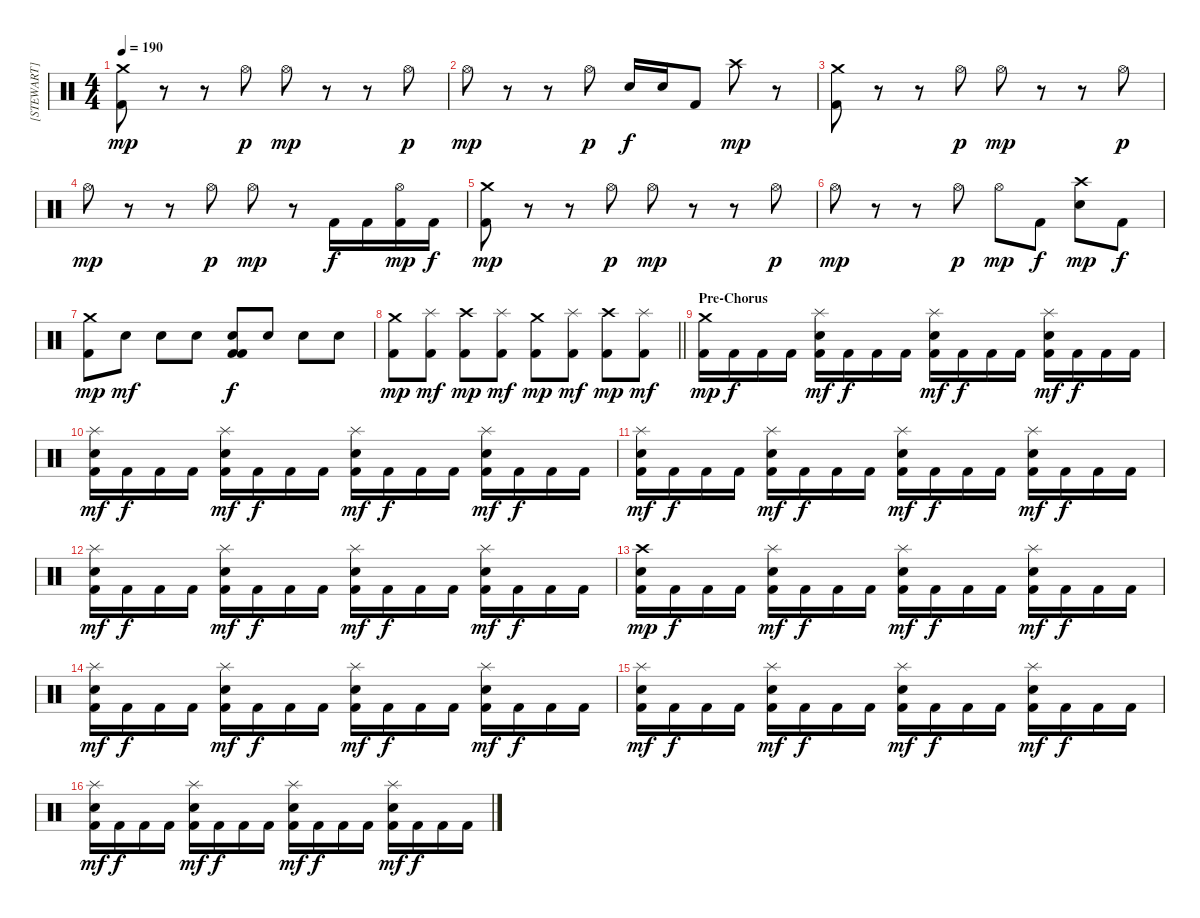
\track ("[STEWART]" "[STEWART]") {instrument percussion}
\staff {score}
\articulation defaults
\ts (4 4)
\tempo 190
\clef neutral
\ks c
("Crash medium (hit)" "Kick (hit) 2").8{dy mp} r.8 r.8 "Hi-Hat (open)".8{dy p} "Hi-Hat (open)".8{dy mp} r.8 r.8 "Hi-Hat (open)".8{dy p} |
"Hi-Hat (open)".8{dy mp} r.8 r.8 "Hi-Hat (open)".8{dy p} "Electric Snare (hit)".16{dy f} "Electric Snare (hit)".16 "Kick (hit) 2".8 "Crash high (hit)".8{dy mp} r.8 |
("Crash medium (hit)" "Kick (hit) 2").8 r.8 r.8 "Hi-Hat (open)".8{dy p} "Hi-Hat (open)".8{dy mp} r.8 r.8 "Hi-Hat (open)".8{dy p} |
"Hi-Hat (open)".8{dy mp} r.8 r.8 "Hi-Hat (open)".8{dy p} "Hi-Hat (open)".8{dy mp} r.8 "Kick (hit) 2".16{dy f} "Kick (hit) 2".16 ("Hi-Hat (open)" "Kick (hit) 2").16{dy mp} "Kick (hit) 2".16{dy f} |
("Crash medium (hit)" "Kick (hit) 2").8{dy mp} r.8 r.8 "Hi-Hat (open)".8{dy p} "Hi-Hat (open)".8{dy mp} r.8 r.8 "Hi-Hat (open)".8{dy p} |
"Hi-Hat (open)".8{dy mp} r.8 r.8 "Hi-Hat (open)".8{dy p} "Hi-Hat (open)".8{dy mp} "Kick (hit) 2".8{dy f} ("Crash high (hit)" "Electric Snare (hit)").8{dy mp} "Kick (hit) 2".8{dy f} |
("Crash medium (hit)" "Kick (hit) 2").8{dy mp} "Electric Snare (hit)".8{dy mf} "Electric Snare (hit)".8 "Electric Snare (hit)".8 ("Electric Snare (hit)" "Kick (hit) 2" "Kick (hit) 2").8{dy f} "Electric Snare (hit)".8 "Electric Snare (hit)".8 "Electric Snare (hit)".8 |
\barLineRight lightlight
("Crash medium (hit)" "Kick (hit) 2").8{dy mp} ("Splash (hit)" "Kick (hit) 2").8{dy mf} ("Crash high (hit)" "Kick (hit) 2").8{dy mp} ("Splash (hit)" "Kick (hit) 2").8{dy mf} ("Crash medium (hit)" "Kick (hit) 2").8{dy mp} ("Splash (hit)" "Kick (hit) 2").8{dy mf} ("Crash high (hit)" "Kick (hit) 2").8{dy mp} ("Splash (hit)" "Kick (hit) 2").8{dy mf} |
\section ("" "Pre-Chorus ")
("Crash medium (hit)" "Kick (hit) 2").16{dy mp} "Kick (hit) 2".16{dy f} "Kick (hit) 2".16 "Kick (hit) 2".16 ("Splash (hit)" "Electric Snare (hit)" "Kick (hit) 2").16{dy mf} "Kick (hit) 2".16{dy f} "Kick (hit) 2".16 "Kick (hit) 2".16 ("Splash (hit)" "Electric Snare (hit)" "Kick (hit) 2").16{dy mf} "Kick (hit) 2".16{dy f} "Kick (hit) 2".16 "Kick (hit) 2".16 ("Splash (hit)" "Electric Snare (hit)" "Kick (hit) 2").16{dy mf} "Kick (hit) 2".16{dy f} "Kick (hit) 2".16 "Kick (hit) 2".16 |
("Splash (hit)" "Electric Snare (hit)" "Kick (hit) 2").16{dy mf} "Kick (hit) 2".16{dy f} "Kick (hit) 2".16 "Kick (hit) 2".16 ("Splash (hit)" "Electric Snare (hit)" "Kick (hit) 2").16{dy mf} "Kick (hit) 2".16{dy f} "Kick (hit) 2".16 "Kick (hit) 2".16 ("Splash (hit)" "Electric Snare (hit)" "Kick (hit) 2").16{dy mf} "Kick (hit) 2".16{dy f} "Kick (hit) 2".16 "Kick (hit) 2".16 ("Splash (hit)" "Electric Snare (hit)" "Kick (hit) 2").16{dy mf} "Kick (hit) 2".16{dy f} "Kick (hit) 2".16 "Kick (hit) 2".16 |
("Splash (hit)" "Electric Snare (hit)" "Kick (hit) 2").16{dy mf} "Kick (hit) 2".16{dy f} "Kick (hit) 2".16 "Kick (hit) 2".16 ("Splash (hit)" "Electric Snare (hit)" "Kick (hit) 2").16{dy mf} "Kick (hit) 2".16{dy f} "Kick (hit) 2".16 "Kick (hit) 2".16 ("Splash (hit)" "Electric Snare (hit)" "Kick (hit) 2").16{dy mf} "Kick (hit) 2".16{dy f} "Kick (hit) 2".16 "Kick (hit) 2".16 ("Splash (hit)" "Electric Snare (hit)" "Kick (hit) 2").16{dy mf} "Kick (hit) 2".16{dy f} "Kick (hit) 2".16 "Kick (hit) 2".16 |
("Splash (hit)" "Electric Snare (hit)" "Kick (hit) 2").16{dy mf} "Kick (hit) 2".16{dy f} "Kick (hit) 2".16 "Kick (hit) 2".16 ("Splash (hit)" "Electric Snare (hit)" "Kick (hit) 2").16{dy mf} "Kick (hit) 2".16{dy f} "Kick (hit) 2".16 "Kick (hit) 2".16 ("Splash (hit)" "Electric Snare (hit)" "Kick (hit) 2").16{dy mf} "Kick (hit) 2".16{dy f} "Kick (hit) 2".16 "Kick (hit) 2".16 ("Splash (hit)" "Electric Snare (hit)" "Kick (hit) 2").16{dy mf} "Kick (hit) 2".16{dy f} "Kick (hit) 2".16 "Kick (hit) 2".16 |
("Crash high (hit)" "Electric Snare (hit)" "Kick (hit) 2").16{dy mp} "Kick (hit) 2".16{dy f} "Kick (hit) 2".16 "Kick (hit) 2".16 ("Splash (hit)" "Electric Snare (hit)" "Kick (hit) 2").16{dy mf} "Kick (hit) 2".16{dy f} "Kick (hit) 2".16 "Kick (hit) 2".16 ("Splash (hit)" "Electric Snare (hit)" "Kick (hit) 2").16{dy mf} "Kick (hit) 2".16{dy f} "Kick (hit) 2".16 "Kick (hit) 2".16 ("Splash (hit)" "Electric Snare (hit)" "Kick (hit) 2").16{dy mf} "Kick (hit) 2".16{dy f} "Kick (hit) 2".16 "Kick (hit) 2".16 |
("Splash (hit)" "Electric Snare (hit)" "Kick (hit) 2").16{dy mf} "Kick (hit) 2".16{dy f} "Kick (hit) 2".16 "Kick (hit) 2".16 ("Splash (hit)" "Electric Snare (hit)" "Kick (hit) 2").16{dy mf} "Kick (hit) 2".16{dy f} "Kick (hit) 2".16 "Kick (hit) 2".16 ("Splash (hit)" "Electric Snare (hit)" "Kick (hit) 2").16{dy mf} "Kick (hit) 2".16{dy f} "Kick (hit) 2".16 "Kick (hit) 2".16 ("Splash (hit)" "Electric Snare (hit)" "Kick (hit) 2").16{dy mf} "Kick (hit) 2".16{dy f} "Kick (hit) 2".16 "Kick (hit) 2".16 |
("Splash (hit)" "Electric Snare (hit)" "Kick (hit) 2").16{dy mf} "Kick (hit) 2".16{dy f} "Kick (hit) 2".16 "Kick (hit) 2".16 ("Splash (hit)" "Electric Snare (hit)" "Kick (hit) 2").16{dy mf} "Kick (hit) 2".16{dy f} "Kick (hit) 2".16 "Kick (hit) 2".16 ("Splash (hit)" "Electric Snare (hit)" "Kick (hit) 2").16{dy mf} "Kick (hit) 2".16{dy f} "Kick (hit) 2".16 "Kick (hit) 2".16 ("Splash (hit)" "Electric Snare (hit)" "Kick (hit) 2").16{dy mf} "Kick (hit) 2".16{dy f} "Kick (hit) 2".16 "Kick (hit) 2".16 |
("Splash (hit)" "Electric Snare (hit)" "Kick (hit) 2").16{dy mf} "Kick (hit) 2".16{dy f} "Kick (hit) 2".16 "Kick (hit) 2".16 ("Splash (hit)" "Electric Snare (hit)" "Kick (hit) 2").16{dy mf} "Kick (hit) 2".16{dy f} "Kick (hit) 2".16 "Kick (hit) 2".16 ("Splash (hit)" "Electric Snare (hit)" "Kick (hit) 2").16{dy mf} "Kick (hit) 2".16{dy f} "Kick (hit) 2".16 "Kick (hit) 2".16 ("Splash (hit)" "Electric Snare (hit)" "Kick (hit) 2").16{dy mf} "Kick (hit) 2".16{dy f} "Kick (hit) 2".16 "Kick (hit) 2".16
